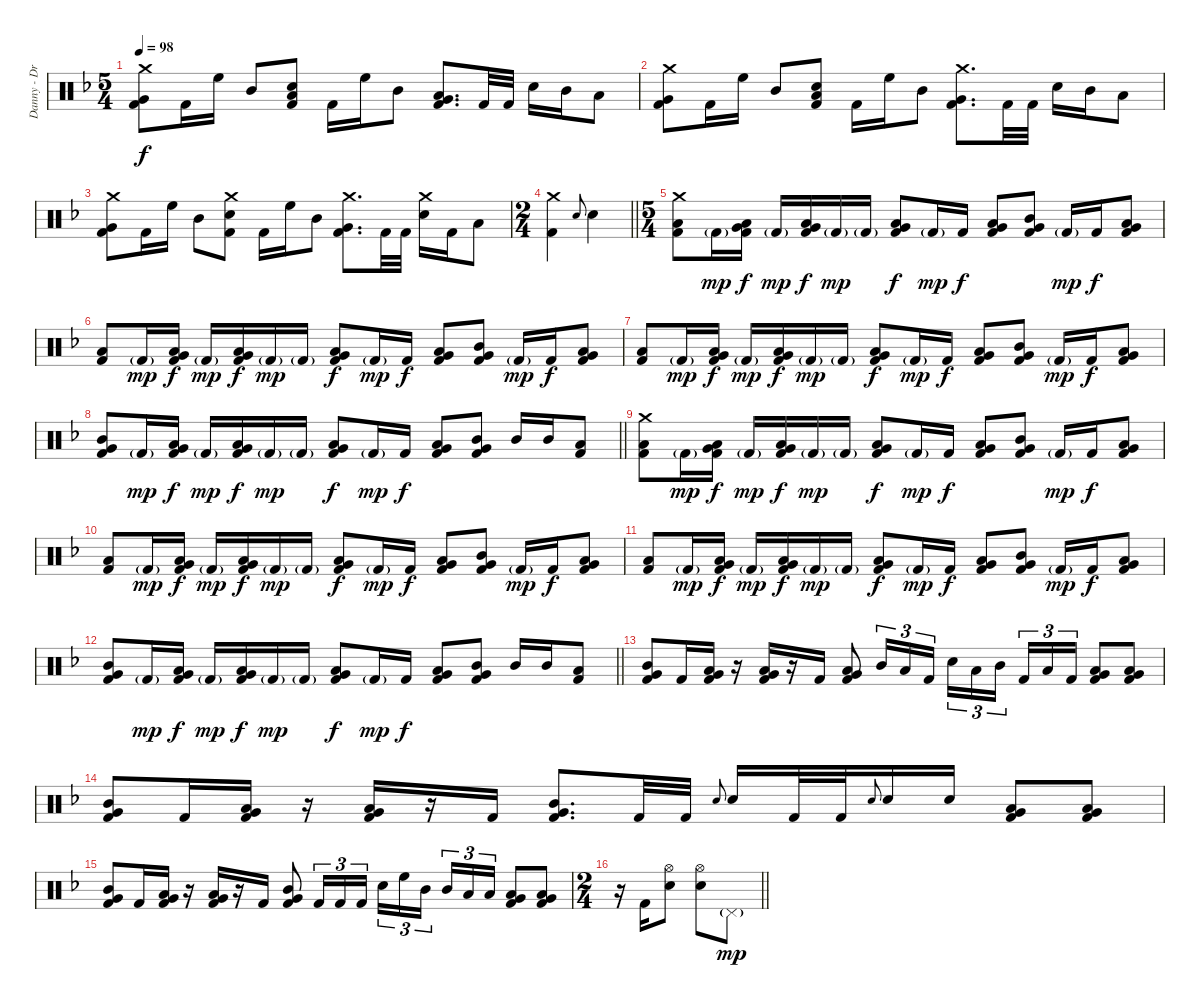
\track ("Danny - Drums" "Danny - Dr") {instrument percussion}
\staff {score}
\articulation defaults
\ts (5 4)
\tempo 98
\clef neutral
\ks dminor
("Crash medium (hit)" "Very Low Tom (hit)" "Kick (hit) 2").8{dy f} "Kick (hit) 2".16 "High Floor Tom (hit)".16 "Mid Tom (hit)".8 ("Electric Snare (hit)" "Low Tom (hit)" "Kick (hit) 2").8 "Kick (hit) 2".16 "High Floor Tom (hit)".16 "Mid Tom (hit)".8 ("Low Tom (hit)" "Very Low Tom (hit)" "Kick (hit) 2").8{d} "Kick (hit) 2".32 "Kick (hit) 2".32 "Electric Snare (hit)".16 "Mid Tom (hit)".16 "Low Tom (hit)".8 |
("Crash medium (hit)" "Very Low Tom (hit)" "Kick (hit) 2").8 "Kick (hit) 2".16 "High Floor Tom (hit)".16 "Mid Tom (hit)".8 ("Electric Snare (hit)" "Low Tom (hit)" "Kick (hit) 2").8 "Kick (hit) 2".16 "High Floor Tom (hit)".16 "Mid Tom (hit)".8 ("Crash medium (hit)" "Very Low Tom (hit)" "Kick (hit) 2").8{d} "Kick (hit) 2".32 "Kick (hit) 2".32 "Electric Snare (hit)".16 "Mid Tom (hit)".16 "Low Tom (hit)".8 |
("Crash medium (hit)" "Very Low Tom (hit)" "Kick (hit) 2").8 "Kick (hit) 2".16 "High Floor Tom (hit)".16 "Mid Tom (hit)".8 ("Crash medium (hit)" "Electric Snare (hit)" "Kick (hit) 2").8 "Kick (hit) 2".16 "High Floor Tom (hit)".16 "Mid Tom (hit)".8 ("Crash medium (hit)" "Very Low Tom (hit)" "Kick (hit) 2").8{d} "Kick (hit) 2".32 "Kick (hit) 2".32 ("Crash medium (hit)" "Electric Snare (hit)").16 "Kick (hit) 2".16 "Low Tom (hit)".8 |
\ts (2 4)
\barLineRight lightlight
("Crash medium (hit)" "Kick (hit) 2").4 "Electric Snare (hit)".8{gr onbeat} "Electric Snare (hit)".4 |
\ts (5 4)
("Crash medium (hit)" "Low Tom (hit)" "Kick (hit) 2").8{volume 16} "Kick (hit) 2"{g}.16{dy mp} ("Low Tom (hit)" "Very Low Tom (hit)" "Kick (hit) 2").16{dy f} "Kick (hit) 2"{g}.16{dy mp} ("Low Tom (hit)" "Very Low Tom (hit)" "Kick (hit) 2").16{dy f} "Kick (hit) 2"{g}.16{dy mp} "Kick (hit) 2"{g}.16 ("Low Tom (hit)" "Very Low Tom (hit)" "Kick (hit) 2").8{dy f} "Kick (hit) 2"{g}.16{dy mp} "Kick (hit) 2".16{dy f} ("Low Tom (hit)" "Very Low Tom (hit)" "Kick (hit) 2").8 ("Mid Tom (hit)" "Very Low Tom (hit)" "Kick (hit) 2").8 "Kick (hit) 2"{g}.16{dy mp} "Kick (hit) 2".16{dy f} ("Low Tom (hit)" "Very Low Tom (hit)" "Kick (hit) 2").8 |
("Low Tom (hit)" "Kick (hit) 2").8 "Kick (hit) 2"{g}.16{dy mp} ("Low Tom (hit)" "Very Low Tom (hit)" "Kick (hit) 2").16{dy f} "Kick (hit) 2"{g}.16{dy mp} ("Low Tom (hit)" "Very Low Tom (hit)" "Kick (hit) 2").16{dy f} "Kick (hit) 2"{g}.16{dy mp} "Kick (hit) 2"{g}.16 ("Low Tom (hit)" "Very Low Tom (hit)" "Kick (hit) 2").8{dy f} "Kick (hit) 2"{g}.16{dy mp} "Kick (hit) 2".16{dy f} ("Low Tom (hit)" "Very Low Tom (hit)" "Kick (hit) 2").8 ("Mid Tom (hit)" "Very Low Tom (hit)" "Kick (hit) 2").8 "Kick (hit) 2"{g}.16{dy mp} "Kick (hit) 2".16{dy f} ("Low Tom (hit)" "Very Low Tom (hit)" "Kick (hit) 2").8 |
("Low Tom (hit)" "Kick (hit) 2").8 "Kick (hit) 2"{g}.16{dy mp} ("Low Tom (hit)" "Very Low Tom (hit)" "Kick (hit) 2").16{dy f} "Kick (hit) 2"{g}.16{dy mp} ("Low Tom (hit)" "Very Low Tom (hit)" "Kick (hit) 2").16{dy f} "Kick (hit) 2"{g}.16{dy mp} "Kick (hit) 2"{g}.16 ("Low Tom (hit)" "Very Low Tom (hit)" "Kick (hit) 2").8{dy f} "Kick (hit) 2"{g}.16{dy mp} "Kick (hit) 2".16{dy f} ("Low Tom (hit)" "Very Low Tom (hit)" "Kick (hit) 2").8 ("Mid Tom (hit)" "Very Low Tom (hit)" "Kick (hit) 2").8 "Kick (hit) 2"{g}.16{dy mp} "Kick (hit) 2".16{dy f} ("Low Tom (hit)" "Very Low Tom (hit)" "Kick (hit) 2").8 |
\barLineRight lightlight
("Mid Tom (hit)" "Very Low Tom (hit)" "Kick (hit) 2").8 "Kick (hit) 2"{g}.16{dy mp} ("Low Tom (hit)" "Very Low Tom (hit)" "Kick (hit) 2").16{dy f} "Kick (hit) 2"{g}.16{dy mp} ("Low Tom (hit)" "Very Low Tom (hit)" "Kick (hit) 2").16{dy f} "Kick (hit) 2"{g}.16{dy mp} "Kick (hit) 2"{g}.16 ("Low Tom (hit)" "Very Low Tom (hit)" "Kick (hit) 2").8{dy f} "Kick (hit) 2"{g}.16{dy mp} "Kick (hit) 2".16{dy f} ("Low Tom (hit)" "Very Low Tom (hit)" "Kick (hit) 2").8 ("Mid Tom (hit)" "Very Low Tom (hit)" "Kick (hit) 2").8 "Mid Tom (hit)".16 "Mid Tom (hit)".16 ("Low Tom (hit)" "Kick (hit) 2").8 |
("Crash medium (hit)" "Low Tom (hit)" "Kick (hit) 2").8{volume 16} "Kick (hit) 2"{g}.16{dy mp} ("Low Tom (hit)" "Very Low Tom (hit)" "Kick (hit) 2").16{dy f} "Kick (hit) 2"{g}.16{dy mp} ("Low Tom (hit)" "Very Low Tom (hit)" "Kick (hit) 2").16{dy f} "Kick (hit) 2"{g}.16{dy mp} "Kick (hit) 2"{g}.16 ("Low Tom (hit)" "Very Low Tom (hit)" "Kick (hit) 2").8{dy f} "Kick (hit) 2"{g}.16{dy mp} "Kick (hit) 2".16{dy f} ("Low Tom (hit)" "Very Low Tom (hit)" "Kick (hit) 2").8 ("Mid Tom (hit)" "Very Low Tom (hit)" "Kick (hit) 2").8 "Kick (hit) 2"{g}.16{dy mp} "Kick (hit) 2".16{dy f} ("Low Tom (hit)" "Very Low Tom (hit)" "Kick (hit) 2").8 |
("Low Tom (hit)" "Kick (hit) 2").8 "Kick (hit) 2"{g}.16{dy mp} ("Low Tom (hit)" "Very Low Tom (hit)" "Kick (hit) 2").16{dy f} "Kick (hit) 2"{g}.16{dy mp} ("Low Tom (hit)" "Very Low Tom (hit)" "Kick (hit) 2").16{dy f} "Kick (hit) 2"{g}.16{dy mp} "Kick (hit) 2"{g}.16 ("Low Tom (hit)" "Very Low Tom (hit)" "Kick (hit) 2").8{dy f} "Kick (hit) 2"{g}.16{dy mp} "Kick (hit) 2".16{dy f} ("Low Tom (hit)" "Very Low Tom (hit)" "Kick (hit) 2").8 ("Mid Tom (hit)" "Very Low Tom (hit)" "Kick (hit) 2").8 "Kick (hit) 2"{g}.16{dy mp} "Kick (hit) 2".16{dy f} ("Low Tom (hit)" "Very Low Tom (hit)" "Kick (hit) 2").8 |
("Low Tom (hit)" "Kick (hit) 2").8 "Kick (hit) 2"{g}.16{dy mp} ("Low Tom (hit)" "Very Low Tom (hit)" "Kick (hit) 2").16{dy f} "Kick (hit) 2"{g}.16{dy mp} ("Low Tom (hit)" "Very Low Tom (hit)" "Kick (hit) 2").16{dy f} "Kick (hit) 2"{g}.16{dy mp} "Kick (hit) 2"{g}.16 ("Low Tom (hit)" "Very Low Tom (hit)" "Kick (hit) 2").8{dy f} "Kick (hit) 2"{g}.16{dy mp} "Kick (hit) 2".16{dy f} ("Low Tom (hit)" "Very Low Tom (hit)" "Kick (hit) 2").8 ("Mid Tom (hit)" "Very Low Tom (hit)" "Kick (hit) 2").8 "Kick (hit) 2"{g}.16{dy mp} "Kick (hit) 2".16{dy f} ("Low Tom (hit)" "Very Low Tom (hit)" "Kick (hit) 2").8 |
\barLineRight lightlight
("Mid Tom (hit)" "Very Low Tom (hit)" "Kick (hit) 2").8 "Kick (hit) 2"{g}.16{dy mp} ("Low Tom (hit)" "Very Low Tom (hit)" "Kick (hit) 2").16{dy f} "Kick (hit) 2"{g}.16{dy mp} ("Low Tom (hit)" "Very Low Tom (hit)" "Kick (hit) 2").16{dy f} "Kick (hit) 2"{g}.16{dy mp} "Kick (hit) 2"{g}.16 ("Low Tom (hit)" "Very Low Tom (hit)" "Kick (hit) 2").8{dy f} "Kick (hit) 2"{g}.16{dy mp} "Kick (hit) 2".16{dy f} ("Low Tom (hit)" "Very Low Tom (hit)" "Kick (hit) 2").8 ("Mid Tom (hit)" "Very Low Tom (hit)" "Kick (hit) 2").8 "Mid Tom (hit)".16 "Mid Tom (hit)".16 ("Low Tom (hit)" "Kick (hit) 2").8 |
("Mid Tom (hit)" "Very Low Tom (hit)" "Kick (hit) 2").8{volume 15} "Kick (hit) 2".16 ("Low Tom (hit)" "Very Low Tom (hit)" "Kick (hit) 2").16 r.16 ("Low Tom (hit)" "Very Low Tom (hit)" "Kick (hit) 2").16 r.16 "Kick (hit) 2".16 ("Low Tom (hit)" "Very Low Tom (hit)" "Kick (hit) 2").8 "Mid Tom (hit)".16{tu (3 2)} "Low Tom (hit)".16{tu (3 2)} "Kick (hit) 2".16{tu (3 2)} "Electric Snare (hit)".16{tu (3 2)} "Low Tom (hit)".16{tu (3 2)} "Mid Tom (hit)".16{tu (3 2) beam splitsecondary} "Kick (hit) 2".16{tu (3 2)} "Low Tom (hit)".16{tu (3 2)} "Kick (hit) 2".16{tu (3 2)} ("Low Tom (hit)" "Very Low Tom (hit)" "Kick (hit) 2").8 ("Low Tom (hit)" "Very Low Tom (hit)" "Kick (hit) 2").8 |
("Mid Tom (hit)" "Very Low Tom (hit)" "Kick (hit) 2").8 "Kick (hit) 2".16 ("Low Tom (hit)" "Very Low Tom (hit)" "Kick (hit) 2").16 r.16 ("Low Tom (hit)" "Very Low Tom (hit)" "Kick (hit) 2").16 r.16 "Kick (hit) 2".16 ("Mid Tom (hit)" "Very Low Tom (hit)" "Kick (hit) 2").8{d} "Kick (hit) 2".32 "Kick (hit) 2".32 "Electric Snare (hit)".8{gr onbeat} "Electric Snare (hit)".16 "Kick (hit) 2".32 "Kick (hit) 2".32 "Electric Snare (hit)".8{gr onbeat} "Electric Snare (hit)".16 "Electric Snare (hit)".16 ("Low Tom (hit)" "Very Low Tom (hit)" "Kick (hit) 2").8 ("Low Tom (hit)" "Very Low Tom (hit)" "Kick (hit) 2").8 |
("Mid Tom (hit)" "Very Low Tom (hit)" "Kick (hit) 2").8 "Kick (hit) 2".16 ("Low Tom (hit)" "Very Low Tom (hit)" "Kick (hit) 2").16 r.16 ("Low Tom (hit)" "Very Low Tom (hit)" "Kick (hit) 2").16 r.16 "Kick (hit) 2".16 ("Mid Tom (hit)" "Very Low Tom (hit)" "Kick (hit) 2").8 "Kick (hit) 2".16{tu (3 2)} "Kick (hit) 2".16{tu (3 2)} "Kick (hit) 2".16{tu (3 2)} "Electric Snare (hit)".16{tu (3 2)} "High Floor Tom (hit)".16{tu (3 2)} "Mid Tom (hit)".16{tu (3 2) beam splitsecondary} "Mid Tom (hit)".16{tu (3 2)} "Low Tom (hit)".16{tu (3 2)} "Low Tom (hit)".16{tu (3 2)} ("Low Tom (hit)" "Very Low Tom (hit)" "Kick (hit) 2").8 ("Low Tom (hit)" "Very Low Tom (hit)" "Kick (hit) 2").8 |
\ts (2 4)
\barLineRight lightlight
r.16 "Kick (hit) 2".16 ("Hi-Hat (open)" "Electric Snare (hit)").8 ("Hi-Hat (open)" "Electric Snare (hit)").8 "Pedal Hi-Hat (hit)"{g}.8{dy mp}
